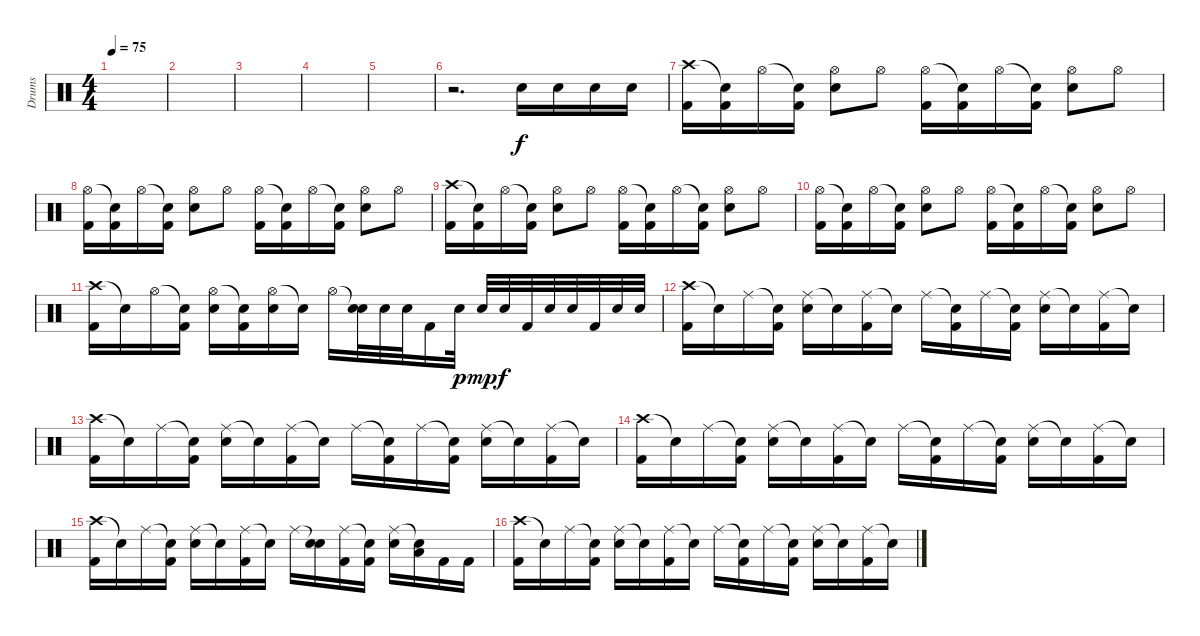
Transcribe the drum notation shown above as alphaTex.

\track ("Drums" "Drums") {instrument percussion}
\staff {score}
\articulation defaults
\ts (4 4)
\tempo 75
\clef neutral
\ks c
|
|
|
|
|
r.2{d} "Electric Snare (hit)".16 "Electric Snare (hit)".16 "Electric Snare (hit)".16 "Electric Snare (hit)".16 |
("Crash high (hit)" "Kick (hit) 2").16 ("Snare (hit)"{t} "Kick (hit) 2").16 "Hi-Hat (open)".16 ("Snare (hit)"{t} "Kick (hit) 2").16 ("Hi-Hat (open)" "Electric Snare (hit)").8 "Hi-Hat (open)".8 ("Hi-Hat (open)" "Kick (hit) 2").16 ("Snare (hit)"{t} "Kick (hit) 2").16 "Hi-Hat (open)".16 ("Snare (hit)"{t} "Kick (hit) 2").16 ("Hi-Hat (open)" "Electric Snare (hit)").8 "Hi-Hat (open)".8 |
("Hi-Hat (open)" "Kick (hit) 2").16 ("Snare (hit)"{t} "Kick (hit) 2").16 "Hi-Hat (open)".16 ("Snare (hit)"{t} "Kick (hit) 2").16 ("Hi-Hat (open)" "Electric Snare (hit)").8 "Hi-Hat (open)".8 ("Hi-Hat (open)" "Kick (hit) 2").16 ("Snare (hit)"{t} "Kick (hit) 2").16 "Hi-Hat (open)".16 ("Snare (hit)"{t} "Kick (hit) 2").16 ("Hi-Hat (open)" "Electric Snare (hit)").8 "Hi-Hat (open)".8 |
("Crash high (hit)" "Kick (hit) 2").16 ("Snare (hit)"{t} "Kick (hit) 2").16 "Hi-Hat (open)".16 ("Snare (hit)"{t} "Kick (hit) 2").16 ("Hi-Hat (open)" "Electric Snare (hit)").8 "Hi-Hat (open)".8 ("Hi-Hat (open)" "Kick (hit) 2").16 ("Snare (hit)"{t} "Kick (hit) 2").16 "Hi-Hat (open)".16 ("Snare (hit)"{t} "Kick (hit) 2").16 ("Hi-Hat (open)" "Electric Snare (hit)").8 "Hi-Hat (open)".8 |
("Hi-Hat (open)" "Kick (hit) 2").16 ("Snare (hit)"{t} "Kick (hit) 2").16 "Hi-Hat (open)".16 ("Snare (hit)"{t} "Kick (hit) 2").16 ("Hi-Hat (open)" "Electric Snare (hit)").8 "Hi-Hat (open)".8 ("Hi-Hat (open)" "Kick (hit) 2").16 ("Snare (hit)"{t} "Kick (hit) 2").16 "Hi-Hat (open)".16 ("Snare (hit)"{t} "Kick (hit) 2").16 ("Hi-Hat (open)" "Electric Snare (hit)").8 "Hi-Hat (open)".8 |
("Crash high (hit)" "Kick (hit) 2").16 "Snare (hit)"{t}.16 "Hi-Hat (open)".16 ("Snare (hit)"{t} "Kick (hit) 2").16 ("Hi-Hat (open)" "Electric Snare (hit)").16 ("Snare (hit)"{t} "Kick (hit) 2").16 ("Hi-Hat (open)" "Electric Snare (hit)").16 "Snare (hit)"{t}.16 "Hi-Hat (open)".16 ("Snare (hit)"{t} "Electric Snare (hit)").32 "Electric Snare (hit)".32 "Electric Snare (hit)".32 "Kick (hit) 2".16 "Electric Snare (hit)".32{dy p} "Electric Snare (hit)".32{dy mp} "Electric Snare (hit)".32{dy f} "Kick (hit) 2".32 "Electric Snare (hit)".32 "Electric Snare (hit)".32 "Kick (hit) 2".32 "Electric Snare (hit)".32 "Electric Snare (hit)".32 |
("Crash high (hit)" "Kick (hit) 2").16 "Snare (hit)"{t}.16 "Ride (middle)".16 ("Snare (hit)"{t} "Kick (hit) 2").16 ("Ride (middle)" "Electric Snare (hit)").16 "Snare (hit)"{t}.16 ("Ride (middle)" "Kick (hit) 2").16 "Snare (hit)"{t}.16 "Ride (middle)".16 ("Snare (hit)"{t} "Kick (hit) 2").16 "Ride (middle)".16 ("Snare (hit)"{t} "Kick (hit) 2").16 ("Ride (middle)" "Electric Snare (hit)").16 "Snare (hit)"{t}.16 ("Ride (middle)" "Kick (hit) 2").16 "Snare (hit)"{t}.16 |
("Crash high (hit)" "Kick (hit) 2").16 "Snare (hit)"{t}.16 "Ride (middle)".16 ("Snare (hit)"{t} "Kick (hit) 2").16 ("Ride (middle)" "Electric Snare (hit)").16 "Snare (hit)"{t}.16 ("Ride (middle)" "Kick (hit) 2").16 "Snare (hit)"{t}.16 "Ride (middle)".16 ("Snare (hit)"{t} "Kick (hit) 2").16 "Ride (middle)".16 ("Snare (hit)"{t} "Kick (hit) 2").16 ("Ride (middle)" "Electric Snare (hit)").16 "Snare (hit)"{t}.16 ("Ride (middle)" "Kick (hit) 2").16 "Snare (hit)"{t}.16 |
("Crash high (hit)" "Kick (hit) 2").16 "Snare (hit)"{t}.16 "Ride (middle)".16 ("Snare (hit)"{t} "Kick (hit) 2").16 ("Ride (middle)" "Electric Snare (hit)").16 "Snare (hit)"{t}.16 ("Ride (middle)" "Kick (hit) 2").16 "Snare (hit)"{t}.16 "Ride (middle)".16 ("Snare (hit)"{t} "Kick (hit) 2").16 "Ride (middle)".16 ("Snare (hit)"{t} "Kick (hit) 2").16 ("Ride (middle)" "Electric Snare (hit)").16 "Snare (hit)"{t}.16 ("Ride (middle)" "Kick (hit) 2").16 "Snare (hit)"{t}.16 |
("Crash high (hit)" "Kick (hit) 2").16 "Snare (hit)"{t}.16 "Ride (middle)".16 ("Snare (hit)"{t} "Kick (hit) 2").16 ("Ride (middle)" "Electric Snare (hit)").16 "Snare (hit)"{t}.16 ("Ride (middle)" "Kick (hit) 2").16 "Snare (hit)"{t}.16 "Ride (middle)".16 ("Snare (hit)"{t} "Electric Snare (hit)").16 ("Ride (middle)" "Kick (hit) 2").16 ("Snare (hit)"{t} "Kick (hit) 2").16 ("Ride (middle)" "Electric Snare (hit)").16 ("Snare (hit)"{t} "Low Tom (hit)").16 "Kick (hit) 2".16 "Kick (hit) 2".16 |
("Crash high (hit)" "Kick (hit) 2").16 "Snare (hit)"{t}.16 "Ride (middle)".16 ("Snare (hit)"{t} "Kick (hit) 2").16 ("Ride (middle)" "Electric Snare (hit)").16 "Snare (hit)"{t}.16 ("Ride (middle)" "Kick (hit) 2").16 "Snare (hit)"{t}.16 "Ride (middle)".16 ("Snare (hit)"{t} "Kick (hit) 2").16 "Ride (middle)".16 ("Snare (hit)"{t} "Kick (hit) 2").16 ("Ride (middle)" "Electric Snare (hit)").16 "Snare (hit)"{t}.16 ("Ride (middle)" "Kick (hit) 2").16 "Snare (hit)"{t}.16
